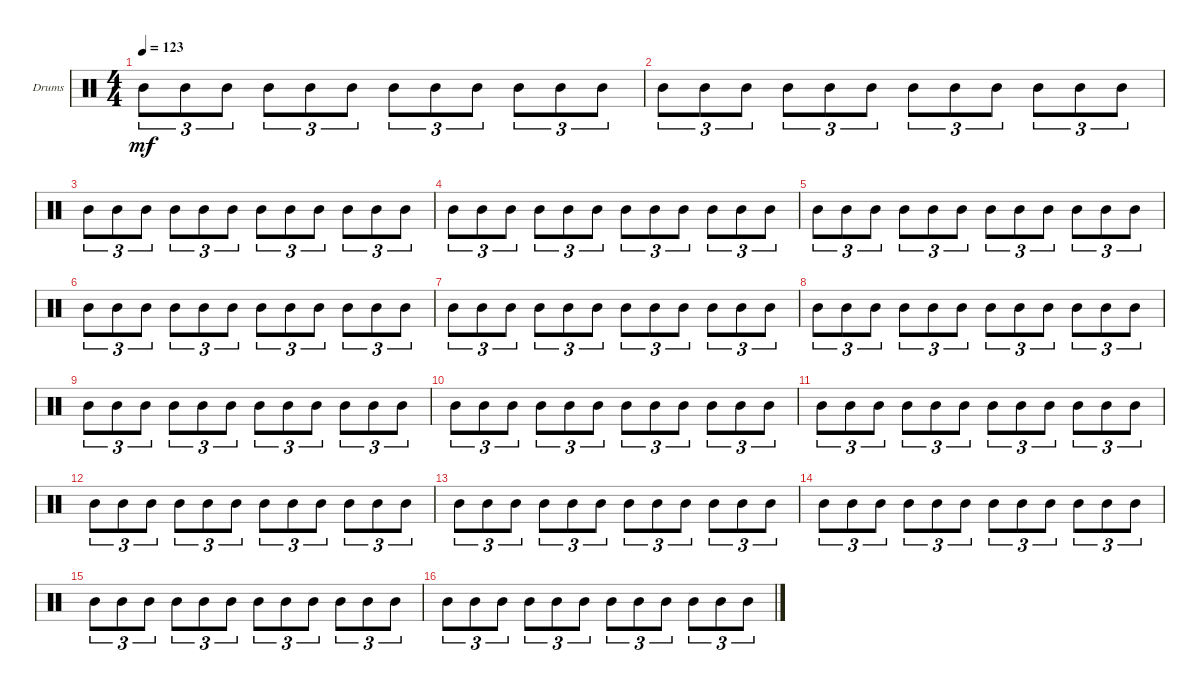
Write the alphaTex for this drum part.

\defaultSystemsLayout 4
\bracketExtendMode groupsimilarinstruments
\firstSystemTrackNameOrientation horizontal
\otherSystemsTrackNameOrientation horizontal
\track ("Drumkit" "Drums") {instrument percussion}
\staff {score}
\articulation defaults
\ts (4 4)
\tempo 123
\clef neutral
\scale
0.333333
\ks c "Mid Tom (hit)".8{tu (3 2) dy mf} "Mid Tom (hit)".8{tu (3 2)} "Mid Tom (hit)".8{tu (3 2)} "Mid Tom (hit)".8{tu (3 2)} "Mid Tom (hit)".8{tu (3 2)} "Mid Tom (hit)".8{tu (3 2)} "Mid Tom (hit)".8{tu (3 2)} "Mid Tom (hit)".8{tu (3 2)} "Mid Tom (hit)".8{tu (3 2)} "Mid Tom (hit)".8{tu (3 2)} "Mid Tom (hit)".8{tu (3 2)} "Mid Tom (hit)".8{tu (3 2)}
|
\scale
0.333333 "Mid Tom (hit)".8{tu (3 2)} "Mid Tom (hit)".8{tu (3 2)} "Mid Tom (hit)".8{tu (3 2)} "Mid Tom (hit)".8{tu (3 2)} "Mid Tom (hit)".8{tu (3 2)} "Mid Tom (hit)".8{tu (3 2)} "Mid Tom (hit)".8{tu (3 2)} "Mid Tom (hit)".8{tu (3 2)} "Mid Tom (hit)".8{tu (3 2)} "Mid Tom (hit)".8{tu (3 2)} "Mid Tom (hit)".8{tu (3 2)} "Mid Tom (hit)".8{tu (3 2)} |
\scale
0.333333 "Mid Tom (hit)".8{tu (3 2)} "Mid Tom (hit)".8{tu (3 2)} "Mid Tom (hit)".8{tu (3 2)} "Mid Tom (hit)".8{tu (3 2)} "Mid Tom (hit)".8{tu (3 2)} "Mid Tom (hit)".8{tu (3 2)} "Mid Tom (hit)".8{tu (3 2)} "Mid Tom (hit)".8{tu (3 2)} "Mid Tom (hit)".8{tu (3 2)} "Mid Tom (hit)".8{tu (3 2)} "Mid Tom (hit)".8{tu (3 2)} "Mid Tom (hit)".8{tu (3 2)} |
\scale
0.333333 "Mid Tom (hit)".8{tu (3 2)} "Mid Tom (hit)".8{tu (3 2)} "Mid Tom (hit)".8{tu (3 2)} "Mid Tom (hit)".8{tu (3 2)} "Mid Tom (hit)".8{tu (3 2)} "Mid Tom (hit)".8{tu (3 2)} "Mid Tom (hit)".8{tu (3 2)} "Mid Tom (hit)".8{tu (3 2)} "Mid Tom (hit)".8{tu (3 2)} "Mid Tom (hit)".8{tu (3 2)} "Mid Tom (hit)".8{tu (3 2)} "Mid Tom (hit)".8{tu (3 2)} |
\scale
0.333333 "Mid Tom (hit)".8{tu (3 2)} "Mid Tom (hit)".8{tu (3 2)} "Mid Tom (hit)".8{tu (3 2)} "Mid Tom (hit)".8{tu (3 2)} "Mid Tom (hit)".8{tu (3 2)} "Mid Tom (hit)".8{tu (3 2)} "Mid Tom (hit)".8{tu (3 2)} "Mid Tom (hit)".8{tu (3 2)} "Mid Tom (hit)".8{tu (3 2)} "Mid Tom (hit)".8{tu (3 2)} "Mid Tom (hit)".8{tu (3 2)} "Mid Tom (hit)".8{tu (3 2)} |
\scale
0.333333 "Mid Tom (hit)".8{tu (3 2)} "Mid Tom (hit)".8{tu (3 2)} "Mid Tom (hit)".8{tu (3 2)} "Mid Tom (hit)".8{tu (3 2)} "Mid Tom (hit)".8{tu (3 2)} "Mid Tom (hit)".8{tu (3 2)} "Mid Tom (hit)".8{tu (3 2)} "Mid Tom (hit)".8{tu (3 2)} "Mid Tom (hit)".8{tu (3 2)} "Mid Tom (hit)".8{tu (3 2)} "Mid Tom (hit)".8{tu (3 2)} "Mid Tom (hit)".8{tu (3 2)} |
\scale
0.333333 "Mid Tom (hit)".8{tu (3 2)} "Mid Tom (hit)".8{tu (3 2)} "Mid Tom (hit)".8{tu (3 2)} "Mid Tom (hit)".8{tu (3 2)} "Mid Tom (hit)".8{tu (3 2)} "Mid Tom (hit)".8{tu (3 2)} "Mid Tom (hit)".8{tu (3 2)} "Mid Tom (hit)".8{tu (3 2)} "Mid Tom (hit)".8{tu (3 2)} "Mid Tom (hit)".8{tu (3 2)} "Mid Tom (hit)".8{tu (3 2)} "Mid Tom (hit)".8{tu (3 2)} |
\scale
0.333333 "Mid Tom (hit)".8{tu (3 2)} "Mid Tom (hit)".8{tu (3 2)} "Mid Tom (hit)".8{tu (3 2)} "Mid Tom (hit)".8{tu (3 2)} "Mid Tom (hit)".8{tu (3 2)} "Mid Tom (hit)".8{tu (3 2)} "Mid Tom (hit)".8{tu (3 2)} "Mid Tom (hit)".8{tu (3 2)} "Mid Tom (hit)".8{tu (3 2)} "Mid Tom (hit)".8{tu (3 2)} "Mid Tom (hit)".8{tu (3 2)} "Mid Tom (hit)".8{tu (3 2)} |
\scale
0.333333 "Mid Tom (hit)".8{tu (3 2)} "Mid Tom (hit)".8{tu (3 2)} "Mid Tom (hit)".8{tu (3 2)} "Mid Tom (hit)".8{tu (3 2)} "Mid Tom (hit)".8{tu (3 2)} "Mid Tom (hit)".8{tu (3 2)} "Mid Tom (hit)".8{tu (3 2)} "Mid Tom (hit)".8{tu (3 2)} "Mid Tom (hit)".8{tu (3 2)} "Mid Tom (hit)".8{tu (3 2)} "Mid Tom (hit)".8{tu (3 2)} "Mid Tom (hit)".8{tu (3 2)} |
\scale
0.333333 "Mid Tom (hit)".8{tu (3 2)} "Mid Tom (hit)".8{tu (3 2)} "Mid Tom (hit)".8{tu (3 2)} "Mid Tom (hit)".8{tu (3 2)} "Mid Tom (hit)".8{tu (3 2)} "Mid Tom (hit)".8{tu (3 2)} "Mid Tom (hit)".8{tu (3 2)} "Mid Tom (hit)".8{tu (3 2)} "Mid Tom (hit)".8{tu (3 2)} "Mid Tom (hit)".8{tu (3 2)} "Mid Tom (hit)".8{tu (3 2)} "Mid Tom (hit)".8{tu (3 2)} |
\scale
0.333333 "Mid Tom (hit)".8{tu (3 2)} "Mid Tom (hit)".8{tu (3 2)} "Mid Tom (hit)".8{tu (3 2)} "Mid Tom (hit)".8{tu (3 2)} "Mid Tom (hit)".8{tu (3 2)} "Mid Tom (hit)".8{tu (3 2)} "Mid Tom (hit)".8{tu (3 2)} "Mid Tom (hit)".8{tu (3 2)} "Mid Tom (hit)".8{tu (3 2)} "Mid Tom (hit)".8{tu (3 2)} "Mid Tom (hit)".8{tu (3 2)} "Mid Tom (hit)".8{tu (3 2)} |
\scale
0.333333 "Mid Tom (hit)".8{tu (3 2)} "Mid Tom (hit)".8{tu (3 2)} "Mid Tom (hit)".8{tu (3 2)} "Mid Tom (hit)".8{tu (3 2)} "Mid Tom (hit)".8{tu (3 2)} "Mid Tom (hit)".8{tu (3 2)} "Mid Tom (hit)".8{tu (3 2)} "Mid Tom (hit)".8{tu (3 2)} "Mid Tom (hit)".8{tu (3 2)} "Mid Tom (hit)".8{tu (3 2)} "Mid Tom (hit)".8{tu (3 2)} "Mid Tom (hit)".8{tu (3 2)} |
\scale
0.333333 "Mid Tom (hit)".8{tu (3 2)} "Mid Tom (hit)".8{tu (3 2)} "Mid Tom (hit)".8{tu (3 2)} "Mid Tom (hit)".8{tu (3 2)} "Mid Tom (hit)".8{tu (3 2)} "Mid Tom (hit)".8{tu (3 2)} "Mid Tom (hit)".8{tu (3 2)} "Mid Tom (hit)".8{tu (3 2)} "Mid Tom (hit)".8{tu (3 2)} "Mid Tom (hit)".8{tu (3 2)} "Mid Tom (hit)".8{tu (3 2)} "Mid Tom (hit)".8{tu (3 2)} |
\scale
0.333333 "Mid Tom (hit)".8{tu (3 2)} "Mid Tom (hit)".8{tu (3 2)} "Mid Tom (hit)".8{tu (3 2)} "Mid Tom (hit)".8{tu (3 2)} "Mid Tom (hit)".8{tu (3 2)} "Mid Tom (hit)".8{tu (3 2)} "Mid Tom (hit)".8{tu (3 2)} "Mid Tom (hit)".8{tu (3 2)} "Mid Tom (hit)".8{tu (3 2)} "Mid Tom (hit)".8{tu (3 2)} "Mid Tom (hit)".8{tu (3 2)} "Mid Tom (hit)".8{tu (3 2)} |
\scale
0.333333 "Mid Tom (hit)".8{tu (3 2)} "Mid Tom (hit)".8{tu (3 2)} "Mid Tom (hit)".8{tu (3 2)} "Mid Tom (hit)".8{tu (3 2)} "Mid Tom (hit)".8{tu (3 2)} "Mid Tom (hit)".8{tu (3 2)} "Mid Tom (hit)".8{tu (3 2)} "Mid Tom (hit)".8{tu (3 2)} "Mid Tom (hit)".8{tu (3 2)} "Mid Tom (hit)".8{tu (3 2)} "Mid Tom (hit)".8{tu (3 2)} "Mid Tom (hit)".8{tu (3 2)} |
\scale
0.333333 "Mid Tom (hit)".8{tu (3 2)} "Mid Tom (hit)".8{tu (3 2)} "Mid Tom (hit)".8{tu (3 2)} "Mid Tom (hit)".8{tu (3 2)} "Mid Tom (hit)".8{tu (3 2)} "Mid Tom (hit)".8{tu (3 2)} "Mid Tom (hit)".8{tu (3 2)} "Mid Tom (hit)".8{tu (3 2)} "Mid Tom (hit)".8{tu (3 2)} "Mid Tom (hit)".8{tu (3 2)} "Mid Tom (hit)".8{tu (3 2)} "Mid Tom (hit)".8{tu (3 2)}
